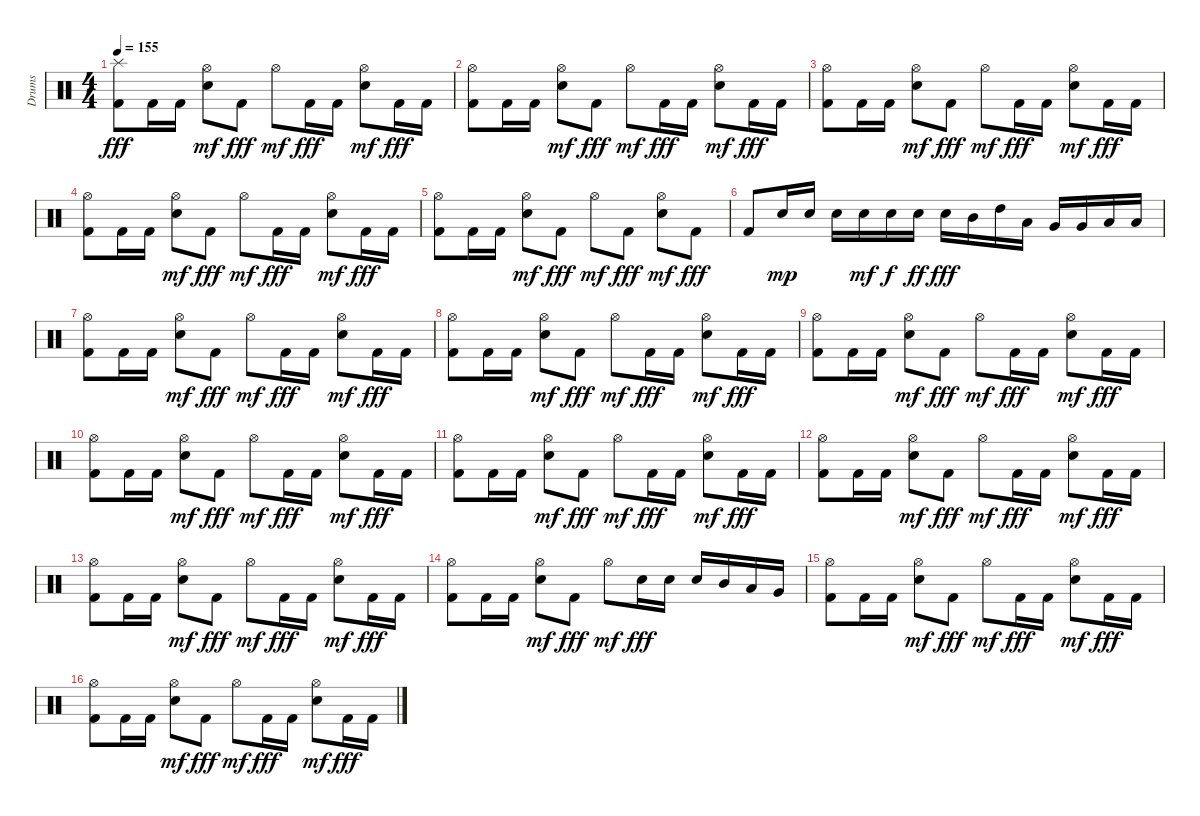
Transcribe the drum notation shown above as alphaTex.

\track ("Drums" "Drums") {instrument percussion}
\staff {score}
\articulation defaults
\ts (4 4)
\tempo 155
\clef neutral
\ks c
("Splash (hit)" "Kick (hit) 2").8{dy fff} "Kick (hit) 2".16 "Kick (hit) 2".16 ("Electric Snare (hit)" "Hi-Hat (open)").8{dy mf} "Kick (hit) 2".8{dy fff} "Hi-Hat (open)".8{dy mf} "Kick (hit) 2".16{dy fff} "Kick (hit) 2".16 ("Electric Snare (hit)" "Hi-Hat (open)").8{dy mf} "Kick (hit) 2".16{dy fff} "Kick (hit) 2".16 |
("Hi-Hat (open)" "Kick (hit) 2").8 "Kick (hit) 2".16 "Kick (hit) 2".16 ("Electric Snare (hit)" "Hi-Hat (open)").8{dy mf} "Kick (hit) 2".8{dy fff} "Hi-Hat (open)".8{dy mf} "Kick (hit) 2".16{dy fff} "Kick (hit) 2".16 ("Electric Snare (hit)" "Hi-Hat (open)").8{dy mf} "Kick (hit) 2".16{dy fff} "Kick (hit) 2".16 |
("Hi-Hat (open)" "Kick (hit) 2").8 "Kick (hit) 2".16 "Kick (hit) 2".16 ("Electric Snare (hit)" "Hi-Hat (open)").8{dy mf} "Kick (hit) 2".8{dy fff} "Hi-Hat (open)".8{dy mf} "Kick (hit) 2".16{dy fff} "Kick (hit) 2".16 ("Electric Snare (hit)" "Hi-Hat (open)").8{dy mf} "Kick (hit) 2".16{dy fff} "Kick (hit) 2".16 |
("Hi-Hat (open)" "Kick (hit) 2").8 "Kick (hit) 2".16 "Kick (hit) 2".16 ("Electric Snare (hit)" "Hi-Hat (open)").8{dy mf} "Kick (hit) 2".8{dy fff} "Hi-Hat (open)".8{dy mf} "Kick (hit) 2".16{dy fff} "Kick (hit) 2".16 ("Electric Snare (hit)" "Hi-Hat (open)").8{dy mf} "Kick (hit) 2".16{dy fff} "Kick (hit) 2".16 |
("Hi-Hat (open)" "Kick (hit) 2").8 "Kick (hit) 2".16 "Kick (hit) 2".16 ("Electric Snare (hit)" "Hi-Hat (open)").8{dy mf} "Kick (hit) 2".8{dy fff} "Hi-Hat (open)".8{dy mf} "Kick (hit) 2".8{dy fff} ("Electric Snare (hit)" "Hi-Hat (open)").8{dy mf} "Kick (hit) 2".8{dy fff} |
"Kick (hit) 2".8 "Electric Snare (hit)".16{dy mp} "Electric Snare (hit)".16 "Electric Snare (hit)".16 "Electric Snare (hit)".16{dy mf} "Electric Snare (hit)".16{dy f} "Electric Snare (hit)".16{dy ff} "Electric Snare (hit)".16{dy fff} "Mid Tom (hit)".16 "High Tom (hit)".16 "Low Tom (hit)".16 "Very Low Tom (hit)".16 "Very Low Tom (hit)".16 "Low Floor Tom (hit)".16 "Low Floor Tom (hit)".16 |
("Hi-Hat (open)" "Kick (hit) 2").8 "Kick (hit) 2".16 "Kick (hit) 2".16 ("Electric Snare (hit)" "Hi-Hat (open)").8{dy mf} "Kick (hit) 2".8{dy fff} "Hi-Hat (open)".8{dy mf} "Kick (hit) 2".16{dy fff} "Kick (hit) 2".16 ("Electric Snare (hit)" "Hi-Hat (open)").8{dy mf} "Kick (hit) 2".16{dy fff} "Kick (hit) 2".16 |
("Hi-Hat (open)" "Kick (hit) 2").8 "Kick (hit) 2".16 "Kick (hit) 2".16 ("Electric Snare (hit)" "Hi-Hat (open)").8{dy mf} "Kick (hit) 2".8{dy fff} "Hi-Hat (open)".8{dy mf} "Kick (hit) 2".16{dy fff} "Kick (hit) 2".16 ("Electric Snare (hit)" "Hi-Hat (open)").8{dy mf} "Kick (hit) 2".16{dy fff} "Kick (hit) 2".16 |
("Hi-Hat (open)" "Kick (hit) 2").8 "Kick (hit) 2".16 "Kick (hit) 2".16 ("Electric Snare (hit)" "Hi-Hat (open)").8{dy mf} "Kick (hit) 2".8{dy fff} "Hi-Hat (open)".8{dy mf} "Kick (hit) 2".16{dy fff} "Kick (hit) 2".16 ("Electric Snare (hit)" "Hi-Hat (open)").8{dy mf} "Kick (hit) 2".16{dy fff} "Kick (hit) 2".16 |
("Hi-Hat (open)" "Kick (hit) 2").8 "Kick (hit) 2".16 "Kick (hit) 2".16 ("Electric Snare (hit)" "Hi-Hat (open)").8{dy mf} "Kick (hit) 2".8{dy fff} "Hi-Hat (open)".8{dy mf} "Kick (hit) 2".16{dy fff} "Kick (hit) 2".16 ("Electric Snare (hit)" "Hi-Hat (open)").8{dy mf} "Kick (hit) 2".16{dy fff} "Kick (hit) 2".16 |
("Hi-Hat (open)" "Kick (hit) 2").8 "Kick (hit) 2".16 "Kick (hit) 2".16 ("Electric Snare (hit)" "Hi-Hat (open)").8{dy mf} "Kick (hit) 2".8{dy fff} "Hi-Hat (open)".8{dy mf} "Kick (hit) 2".16{dy fff} "Kick (hit) 2".16 ("Electric Snare (hit)" "Hi-Hat (open)").8{dy mf} "Kick (hit) 2".16{dy fff} "Kick (hit) 2".16 |
("Hi-Hat (open)" "Kick (hit) 2").8 "Kick (hit) 2".16 "Kick (hit) 2".16 ("Electric Snare (hit)" "Hi-Hat (open)").8{dy mf} "Kick (hit) 2".8{dy fff} "Hi-Hat (open)".8{dy mf} "Kick (hit) 2".16{dy fff} "Kick (hit) 2".16 ("Electric Snare (hit)" "Hi-Hat (open)").8{dy mf} "Kick (hit) 2".16{dy fff} "Kick (hit) 2".16 |
("Hi-Hat (open)" "Kick (hit) 2").8 "Kick (hit) 2".16 "Kick (hit) 2".16 ("Electric Snare (hit)" "Hi-Hat (open)").8{dy mf} "Kick (hit) 2".8{dy fff} "Hi-Hat (open)".8{dy mf} "Kick (hit) 2".16{dy fff} "Kick (hit) 2".16 ("Electric Snare (hit)" "Hi-Hat (open)").8{dy mf} "Kick (hit) 2".16{dy fff} "Kick (hit) 2".16 |
("Hi-Hat (open)" "Kick (hit) 2").8 "Kick (hit) 2".16 "Kick (hit) 2".16 ("Electric Snare (hit)" "Hi-Hat (open)").8{dy mf} "Kick (hit) 2".8{dy fff} "Hi-Hat (open)".8{dy mf} "Electric Snare (hit)".16{dy fff} "Electric Snare (hit)".16 "Electric Snare (hit)".16 "Mid Tom (hit)".16 "Low Tom (hit)".16 "Very Low Tom (hit)".16 |
("Hi-Hat (open)" "Kick (hit) 2").8 "Kick (hit) 2".16 "Kick (hit) 2".16 ("Electric Snare (hit)" "Hi-Hat (open)").8{dy mf} "Kick (hit) 2".8{dy fff} "Hi-Hat (open)".8{dy mf} "Kick (hit) 2".16{dy fff} "Kick (hit) 2".16 ("Electric Snare (hit)" "Hi-Hat (open)").8{dy mf} "Kick (hit) 2".16{dy fff} "Kick (hit) 2".16 |
("Hi-Hat (open)" "Kick (hit) 2").8 "Kick (hit) 2".16 "Kick (hit) 2".16 ("Electric Snare (hit)" "Hi-Hat (open)").8{dy mf} "Kick (hit) 2".8{dy fff} "Hi-Hat (open)".8{dy mf} "Kick (hit) 2".16{dy fff} "Kick (hit) 2".16 ("Electric Snare (hit)" "Hi-Hat (open)").8{dy mf} "Kick (hit) 2".16{dy fff} "Kick (hit) 2".16
